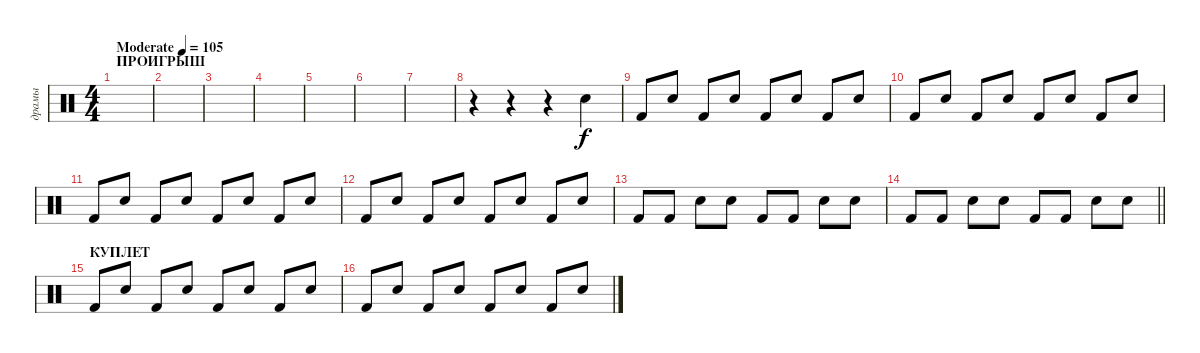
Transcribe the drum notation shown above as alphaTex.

\track ("драмы" "драмы") {instrument percussion}
\staff {score}
\articulation defaults
\ts (4 4)
\section ("" "ПРОИГРЫШ")
\tempo (105 "Moderate")
\clef neutral
\ks c
|
|
|
|
|
|
|
r.4 r.4 r.4 "Electric Snare (hit)".4 |
"Kick (hit) 2".8 "Electric Snare (hit)".8 "Kick (hit) 2".8 "Electric Snare (hit)".8 "Kick (hit) 2".8 "Electric Snare (hit)".8 "Kick (hit) 2".8 "Electric Snare (hit)".8 |
"Kick (hit) 2".8 "Electric Snare (hit)".8 "Kick (hit) 2".8 "Electric Snare (hit)".8 "Kick (hit) 2".8 "Electric Snare (hit)".8 "Kick (hit) 2".8 "Electric Snare (hit)".8 |
"Kick (hit) 2".8 "Electric Snare (hit)".8 "Kick (hit) 2".8 "Electric Snare (hit)".8 "Kick (hit) 2".8 "Electric Snare (hit)".8 "Kick (hit) 2".8 "Electric Snare (hit)".8 |
"Kick (hit) 2".8 "Electric Snare (hit)".8 "Kick (hit) 2".8 "Electric Snare (hit)".8 "Kick (hit) 2".8 "Electric Snare (hit)".8 "Kick (hit) 2".8 "Electric Snare (hit)".8 |
"Kick (hit) 2".8 "Kick (hit) 2".8 "Electric Snare (hit)".8 "Electric Snare (hit)".8 "Kick (hit) 2".8 "Kick (hit) 2".8 "Electric Snare (hit)".8 "Electric Snare (hit)".8 |
\barLineRight lightlight "Kick (hit) 2".8 "Kick (hit) 2".8 "Electric Snare (hit)".8 "Electric Snare (hit)".8 "Kick (hit) 2".8 "Kick (hit) 2".8 "Electric Snare (hit)".8 "Electric Snare (hit)".8
|
\section ("" "КУПЛЕТ")
"Kick (hit) 2".8 "Electric Snare (hit)".8 "Kick (hit) 2".8 "Electric Snare (hit)".8 "Kick (hit) 2".8 "Electric Snare (hit)".8 "Kick (hit) 2".8 "Electric Snare (hit)".8 |
"Kick (hit) 2".8 "Electric Snare (hit)".8 "Kick (hit) 2".8 "Electric Snare (hit)".8 "Kick (hit) 2".8 "Electric Snare (hit)".8 "Kick (hit) 2".8 "Electric Snare (hit)".8
